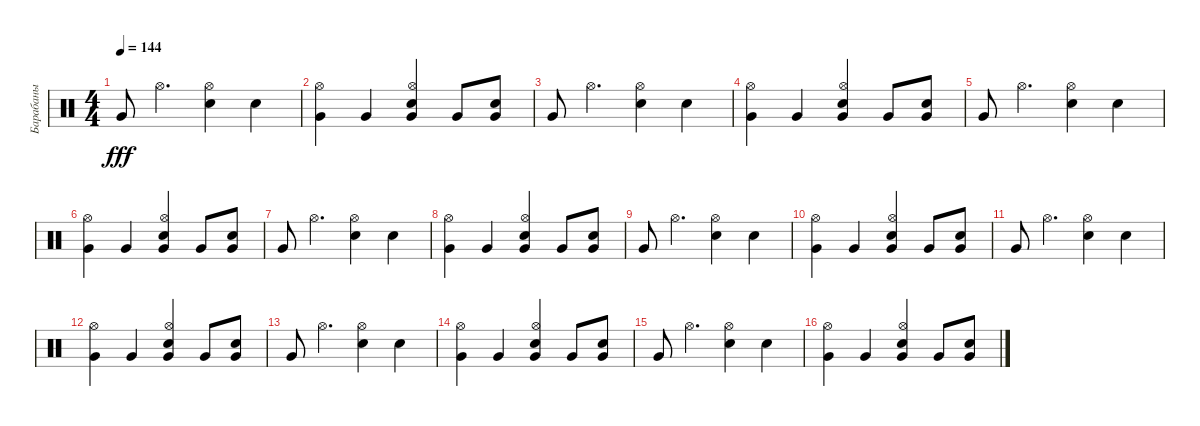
\track ("Барабаны" "Барабаны") {instrument percussion}
\staff {score}
\articulation defaults
\ts (4 4)
\tempo 144
\clef neutral
\ks c "Very Low Tom (hit)".8{dy fff} "Hi-Hat (open)".4{d}
("Hi-Hat (open)" "Snare (hit) 2").4 "Snare (hit) 2".4 |
("Very Low Tom (hit)" "Hi-Hat (open)").4 "Very Low Tom (hit)".4 ("Electric Snare (hit)" "Very Low Tom (hit)" "Hi-Hat (open)").4 "Very Low Tom (hit)".8 ("Electric Snare (hit)" "Very Low Tom (hit)").8 |
"Very Low Tom (hit)".8 "Hi-Hat (open)".4{d} ("Hi-Hat (open)" "Snare (hit) 2").4 "Snare (hit) 2".4 |
("Very Low Tom (hit)" "Hi-Hat (open)").4 "Very Low Tom (hit)".4 ("Electric Snare (hit)" "Very Low Tom (hit)" "Hi-Hat (open)").4 "Very Low Tom (hit)".8 ("Electric Snare (hit)" "Very Low Tom (hit)").8 |
"Very Low Tom (hit)".8 "Hi-Hat (open)".4{d} ("Hi-Hat (open)" "Snare (hit) 2").4 "Snare (hit) 2".4 |
("Very Low Tom (hit)" "Hi-Hat (open)").4 "Very Low Tom (hit)".4 ("Electric Snare (hit)" "Very Low Tom (hit)" "Hi-Hat (open)").4 "Very Low Tom (hit)".8 ("Electric Snare (hit)" "Very Low Tom (hit)").8 |
"Very Low Tom (hit)".8 "Hi-Hat (open)".4{d} ("Hi-Hat (open)" "Snare (hit) 2").4 "Snare (hit) 2".4 |
("Very Low Tom (hit)" "Hi-Hat (open)").4 "Very Low Tom (hit)".4 ("Electric Snare (hit)" "Very Low Tom (hit)" "Hi-Hat (open)").4 "Very Low Tom (hit)".8 ("Electric Snare (hit)" "Very Low Tom (hit)").8 |
"Very Low Tom (hit)".8 "Hi-Hat (open)".4{d} ("Hi-Hat (open)" "Snare (hit) 2").4 "Snare (hit) 2".4 |
("Very Low Tom (hit)" "Hi-Hat (open)").4 "Very Low Tom (hit)".4 ("Electric Snare (hit)" "Very Low Tom (hit)" "Hi-Hat (open)").4 "Very Low Tom (hit)".8 ("Electric Snare (hit)" "Very Low Tom (hit)").8 |
"Very Low Tom (hit)".8 "Hi-Hat (open)".4{d} ("Hi-Hat (open)" "Snare (hit) 2").4 "Snare (hit) 2".4 |
("Very Low Tom (hit)" "Hi-Hat (open)").4 "Very Low Tom (hit)".4 ("Electric Snare (hit)" "Very Low Tom (hit)" "Hi-Hat (open)").4 "Very Low Tom (hit)".8 ("Electric Snare (hit)" "Very Low Tom (hit)").8 |
"Very Low Tom (hit)".8 "Hi-Hat (open)".4{d} ("Hi-Hat (open)" "Snare (hit) 2").4 "Snare (hit) 2".4 |
("Very Low Tom (hit)" "Hi-Hat (open)").4 "Very Low Tom (hit)".4 ("Electric Snare (hit)" "Very Low Tom (hit)" "Hi-Hat (open)").4 "Very Low Tom (hit)".8 ("Electric Snare (hit)" "Very Low Tom (hit)").8 |
"Very Low Tom (hit)".8 "Hi-Hat (open)".4{d} ("Hi-Hat (open)" "Snare (hit) 2").4 "Snare (hit) 2".4 |
("Very Low Tom (hit)" "Hi-Hat (open)").4 "Very Low Tom (hit)".4 ("Electric Snare (hit)" "Very Low Tom (hit)" "Hi-Hat (open)").4 "Very Low Tom (hit)".8 ("Electric Snare (hit)" "Very Low Tom (hit)").8
